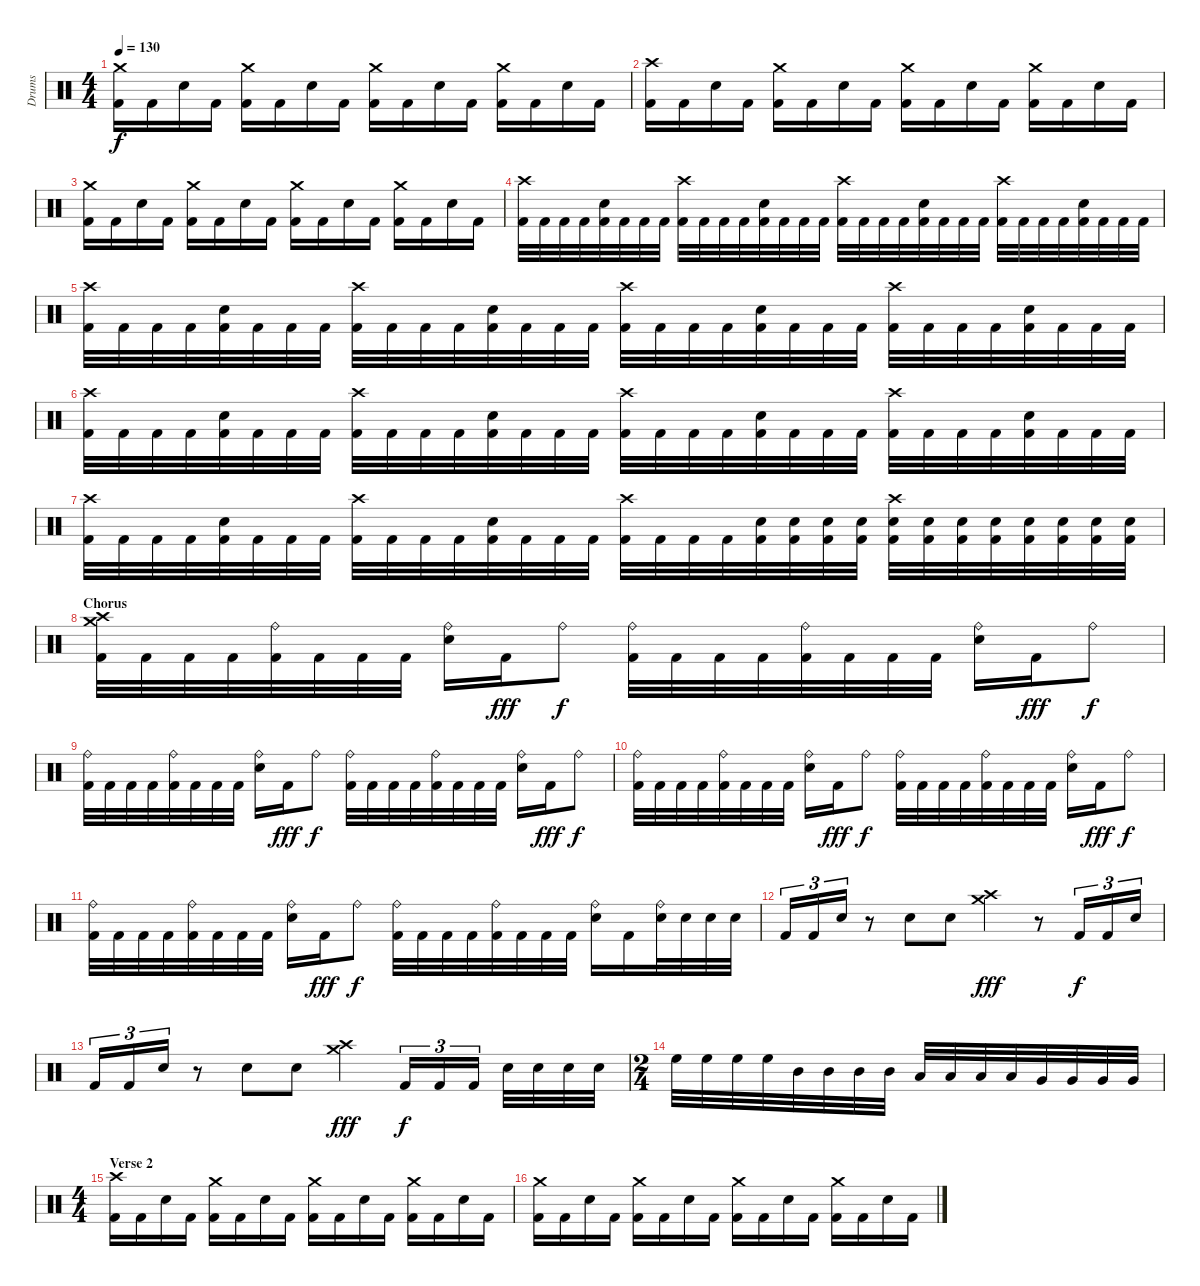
\track ("Drums" "Drums") {instrument percussion}
\staff {score}
\articulation defaults
\ts (4 4)
\tempo 130
\clef neutral
\ks c
("Crash medium (hit)" "Kick (hit) 2").16{dy f} "Kick (hit) 2".16 "Electric Snare (hit)".16 "Kick (hit) 2".16 ("Crash medium (hit)" "Kick (hit) 2").16 "Kick (hit) 2".16 "Electric Snare (hit)".16 "Kick (hit) 2".16 ("Crash medium (hit)" "Kick (hit) 2").16 "Kick (hit) 2".16 "Electric Snare (hit)".16 "Kick (hit) 2".16 ("Crash medium (hit)" "Kick (hit) 2").16 "Kick (hit) 2".16 "Electric Snare (hit)".16 "Kick (hit) 2".16 |
("Crash high (hit)" "Kick (hit) 2").16 "Kick (hit) 2".16 "Electric Snare (hit)".16 "Kick (hit) 2".16 ("Crash medium (hit)" "Kick (hit) 2").16 "Kick (hit) 2".16 "Electric Snare (hit)".16 "Kick (hit) 2".16 ("Crash medium (hit)" "Kick (hit) 2").16 "Kick (hit) 2".16 "Electric Snare (hit)".16 "Kick (hit) 2".16 ("Crash medium (hit)" "Kick (hit) 2").16 "Kick (hit) 2".16 "Electric Snare (hit)".16 "Kick (hit) 2".16 |
("Crash medium (hit)" "Kick (hit) 2").16 "Kick (hit) 2".16 "Electric Snare (hit)".16 "Kick (hit) 2".16 ("Crash medium (hit)" "Kick (hit) 2").16 "Kick (hit) 2".16 "Electric Snare (hit)".16 "Kick (hit) 2".16 ("Crash medium (hit)" "Kick (hit) 2").16 "Kick (hit) 2".16 "Electric Snare (hit)".16 "Kick (hit) 2".16 ("Crash medium (hit)" "Kick (hit) 2").16 "Kick (hit) 2".16 "Electric Snare (hit)".16 "Kick (hit) 2".16 |
("Crash high (hit)" "Kick (hit) 2").32 "Kick (hit) 2".32 "Kick (hit) 2".32 "Kick (hit) 2".32 ("Electric Snare (hit)" "Kick (hit) 2").32 "Kick (hit) 2".32 "Kick (hit) 2".32 "Kick (hit) 2".32 ("Crash high (hit)" "Kick (hit) 2").32 "Kick (hit) 2".32 "Kick (hit) 2".32 "Kick (hit) 2".32 ("Electric Snare (hit)" "Kick (hit) 2").32 "Kick (hit) 2".32 "Kick (hit) 2".32 "Kick (hit) 2".32 ("Crash high (hit)" "Kick (hit) 2").32 "Kick (hit) 2".32 "Kick (hit) 2".32 "Kick (hit) 2".32 ("Electric Snare (hit)" "Kick (hit) 2").32 "Kick (hit) 2".32 "Kick (hit) 2".32 "Kick (hit) 2".32 ("Crash high (hit)" "Kick (hit) 2").32 "Kick (hit) 2".32 "Kick (hit) 2".32 "Kick (hit) 2".32 ("Electric Snare (hit)" "Kick (hit) 2").32 "Kick (hit) 2".32 "Kick (hit) 2".32 "Kick (hit) 2".32 |
("Crash high (hit)" "Kick (hit) 2").32 "Kick (hit) 2".32 "Kick (hit) 2".32 "Kick (hit) 2".32 ("Electric Snare (hit)" "Kick (hit) 2").32 "Kick (hit) 2".32 "Kick (hit) 2".32 "Kick (hit) 2".32 ("Crash high (hit)" "Kick (hit) 2").32 "Kick (hit) 2".32 "Kick (hit) 2".32 "Kick (hit) 2".32 ("Electric Snare (hit)" "Kick (hit) 2").32 "Kick (hit) 2".32 "Kick (hit) 2".32 "Kick (hit) 2".32 ("Crash high (hit)" "Kick (hit) 2").32 "Kick (hit) 2".32 "Kick (hit) 2".32 "Kick (hit) 2".32 ("Electric Snare (hit)" "Kick (hit) 2").32 "Kick (hit) 2".32 "Kick (hit) 2".32 "Kick (hit) 2".32 ("Crash high (hit)" "Kick (hit) 2").32 "Kick (hit) 2".32 "Kick (hit) 2".32 "Kick (hit) 2".32 ("Electric Snare (hit)" "Kick (hit) 2").32 "Kick (hit) 2".32 "Kick (hit) 2".32 "Kick (hit) 2".32 |
("Crash high (hit)" "Kick (hit) 2").32 "Kick (hit) 2".32 "Kick (hit) 2".32 "Kick (hit) 2".32 ("Electric Snare (hit)" "Kick (hit) 2").32 "Kick (hit) 2".32 "Kick (hit) 2".32 "Kick (hit) 2".32 ("Crash high (hit)" "Kick (hit) 2").32 "Kick (hit) 2".32 "Kick (hit) 2".32 "Kick (hit) 2".32 ("Electric Snare (hit)" "Kick (hit) 2").32 "Kick (hit) 2".32 "Kick (hit) 2".32 "Kick (hit) 2".32 ("Crash high (hit)" "Kick (hit) 2").32 "Kick (hit) 2".32 "Kick (hit) 2".32 "Kick (hit) 2".32 ("Electric Snare (hit)" "Kick (hit) 2").32 "Kick (hit) 2".32 "Kick (hit) 2".32 "Kick (hit) 2".32 ("Crash high (hit)" "Kick (hit) 2").32 "Kick (hit) 2".32 "Kick (hit) 2".32 "Kick (hit) 2".32 ("Electric Snare (hit)" "Kick (hit) 2").32 "Kick (hit) 2".32 "Kick (hit) 2".32 "Kick (hit) 2".32 |
("Crash high (hit)" "Kick (hit) 2").32 "Kick (hit) 2".32 "Kick (hit) 2".32 "Kick (hit) 2".32 ("Electric Snare (hit)" "Kick (hit) 2").32 "Kick (hit) 2".32 "Kick (hit) 2".32 "Kick (hit) 2".32 ("Crash high (hit)" "Kick (hit) 2").32 "Kick (hit) 2".32 "Kick (hit) 2".32 "Kick (hit) 2".32 ("Electric Snare (hit)" "Kick (hit) 2").32 "Kick (hit) 2".32 "Kick (hit) 2".32 "Kick (hit) 2".32 ("Crash high (hit)" "Kick (hit) 2").32 "Kick (hit) 2".32 "Kick (hit) 2".32 "Kick (hit) 2".32 ("Electric Snare (hit)" "Kick (hit) 2").32 ("Electric Snare (hit)" "Kick (hit) 2").32 ("Electric Snare (hit)" "Kick (hit) 2").32 ("Electric Snare (hit)" "Kick (hit) 2").32 ("Crash high (hit)" "Electric Snare (hit)" "Kick (hit) 2").32 ("Electric Snare (hit)" "Kick (hit) 2").32 ("Electric Snare (hit)" "Kick (hit) 2").32 ("Electric Snare (hit)" "Kick (hit) 2").32 ("Electric Snare (hit)" "Kick (hit) 2").32 ("Electric Snare (hit)" "Kick (hit) 2").32 ("Electric Snare (hit)" "Kick (hit) 2").32 ("Electric Snare (hit)" "Kick (hit) 2").32 |
\section ("" "Chorus")
("Crash medium (hit)" "Crash high (hit)" "Kick (hit) 2").32 "Kick (hit) 2".32 "Kick (hit) 2".32 "Kick (hit) 2".32 ("Ride (bell)" "Kick (hit) 2").32 "Kick (hit) 2".32 "Kick (hit) 2".32 "Kick (hit) 2".32 ("Ride (bell)" "Electric Snare (hit)").16 "Kick (hit) 2".16{dy fff} "Ride (bell)".8{dy f} ("Ride (bell)" "Kick (hit) 2").32 "Kick (hit) 2".32 "Kick (hit) 2".32 "Kick (hit) 2".32 ("Ride (bell)" "Kick (hit) 2").32 "Kick (hit) 2".32 "Kick (hit) 2".32 "Kick (hit) 2".32 ("Ride (bell)" "Electric Snare (hit)").16 "Kick (hit) 2".16{dy fff} "Ride (bell)".8{dy f} |
("Ride (bell)" "Kick (hit) 2").32 "Kick (hit) 2".32 "Kick (hit) 2".32 "Kick (hit) 2".32 ("Ride (bell)" "Kick (hit) 2").32 "Kick (hit) 2".32 "Kick (hit) 2".32 "Kick (hit) 2".32 ("Ride (bell)" "Electric Snare (hit)").16 "Kick (hit) 2".16{dy fff} "Ride (bell)".8{dy f} ("Ride (bell)" "Kick (hit) 2").32 "Kick (hit) 2".32 "Kick (hit) 2".32 "Kick (hit) 2".32 ("Ride (bell)" "Kick (hit) 2").32 "Kick (hit) 2".32 "Kick (hit) 2".32 "Kick (hit) 2".32 ("Ride (bell)" "Electric Snare (hit)").16 "Kick (hit) 2".16{dy fff} "Ride (bell)".8{dy f} |
("Ride (bell)" "Kick (hit) 2").32 "Kick (hit) 2".32 "Kick (hit) 2".32 "Kick (hit) 2".32 ("Ride (bell)" "Kick (hit) 2").32 "Kick (hit) 2".32 "Kick (hit) 2".32 "Kick (hit) 2".32 ("Ride (bell)" "Electric Snare (hit)").16 "Kick (hit) 2".16{dy fff} "Ride (bell)".8{dy f} ("Ride (bell)" "Kick (hit) 2").32 "Kick (hit) 2".32 "Kick (hit) 2".32 "Kick (hit) 2".32 ("Ride (bell)" "Kick (hit) 2").32 "Kick (hit) 2".32 "Kick (hit) 2".32 "Kick (hit) 2".32 ("Ride (bell)" "Electric Snare (hit)").16 "Kick (hit) 2".16{dy fff} "Ride (bell)".8{dy f} |
("Ride (bell)" "Kick (hit) 2").32 "Kick (hit) 2".32 "Kick (hit) 2".32 "Kick (hit) 2".32 ("Ride (bell)" "Kick (hit) 2").32 "Kick (hit) 2".32 "Kick (hit) 2".32 "Kick (hit) 2".32 ("Ride (bell)" "Electric Snare (hit)").16 "Kick (hit) 2".16{dy fff} "Ride (bell)".8{dy f} ("Ride (bell)" "Kick (hit) 2").32 "Kick (hit) 2".32 "Kick (hit) 2".32 "Kick (hit) 2".32 ("Ride (bell)" "Kick (hit) 2").32 "Kick (hit) 2".32 "Kick (hit) 2".32 "Kick (hit) 2".32 ("Ride (bell)" "Electric Snare (hit)").16 "Kick (hit) 2".16 ("Ride (bell)" "Electric Snare (hit)").32 "Electric Snare (hit)".32 "Electric Snare (hit)".32 "Electric Snare (hit)".32 |
"Kick (hit) 2".16{tu (3 2)} "Kick (hit) 2".16{tu (3 2)} "Electric Snare (hit)".16{tu (3 2)} r.8 "Electric Snare (hit)".8 "Electric Snare (hit)".8 ("Crash medium (hit)" "Crash high (hit)").4{dy fff} r.8 "Kick (hit) 2".16{tu (3 2) dy f} "Kick (hit) 2".16{tu (3 2)} "Electric Snare (hit)".16{tu (3 2)} |
"Kick (hit) 2".16{tu (3 2)} "Kick (hit) 2".16{tu (3 2)} "Electric Snare (hit)".16{tu (3 2)} r.8 "Electric Snare (hit)".8 "Electric Snare (hit)".8 ("Crash medium (hit)" "Crash high (hit)").4{dy fff} "Kick (hit) 2".16{tu (3 2) dy f} "Kick (hit) 2".16{tu (3 2)} "Kick (hit) 2".16{tu (3 2)} "Electric Snare (hit)".32 "Electric Snare (hit)".32 "Electric Snare (hit)".32 "Electric Snare (hit)".32 |
\ts (2 4)
"High Floor Tom (hit)".32 "High Floor Tom (hit)".32 "High Floor Tom (hit)".32 "High Floor Tom (hit)".32 "Mid Tom (hit)".32 "Mid Tom (hit)".32 "Mid Tom (hit)".32 "Mid Tom (hit)".32 "Low Tom (hit)".32 "Low Tom (hit)".32 "Low Tom (hit)".32 "Low Tom (hit)".32 "Very Low Tom (hit)".32 "Very Low Tom (hit)".32 "Very Low Tom (hit)".32 "Very Low Tom (hit)".32 |
\ts (4 4)
\section ("" "Verse 2")
("Crash high (hit)" "Kick (hit) 2").16 "Kick (hit) 2".16 "Electric Snare (hit)".16 "Kick (hit) 2".16 ("Crash medium (hit)" "Kick (hit) 2").16 "Kick (hit) 2".16 "Electric Snare (hit)".16 "Kick (hit) 2".16 ("Crash medium (hit)" "Kick (hit) 2").16 "Kick (hit) 2".16 "Electric Snare (hit)".16 "Kick (hit) 2".16 ("Crash medium (hit)" "Kick (hit) 2").16 "Kick (hit) 2".16 "Electric Snare (hit)".16 "Kick (hit) 2".16 |
("Crash medium (hit)" "Kick (hit) 2").16 "Kick (hit) 2".16 "Electric Snare (hit)".16 "Kick (hit) 2".16 ("Crash medium (hit)" "Kick (hit) 2").16 "Kick (hit) 2".16 "Electric Snare (hit)".16 "Kick (hit) 2".16 ("Crash medium (hit)" "Kick (hit) 2").16 "Kick (hit) 2".16 "Electric Snare (hit)".16 "Kick (hit) 2".16 ("Crash medium (hit)" "Kick (hit) 2").16 "Kick (hit) 2".16 "Electric Snare (hit)".16 "Kick (hit) 2".16
